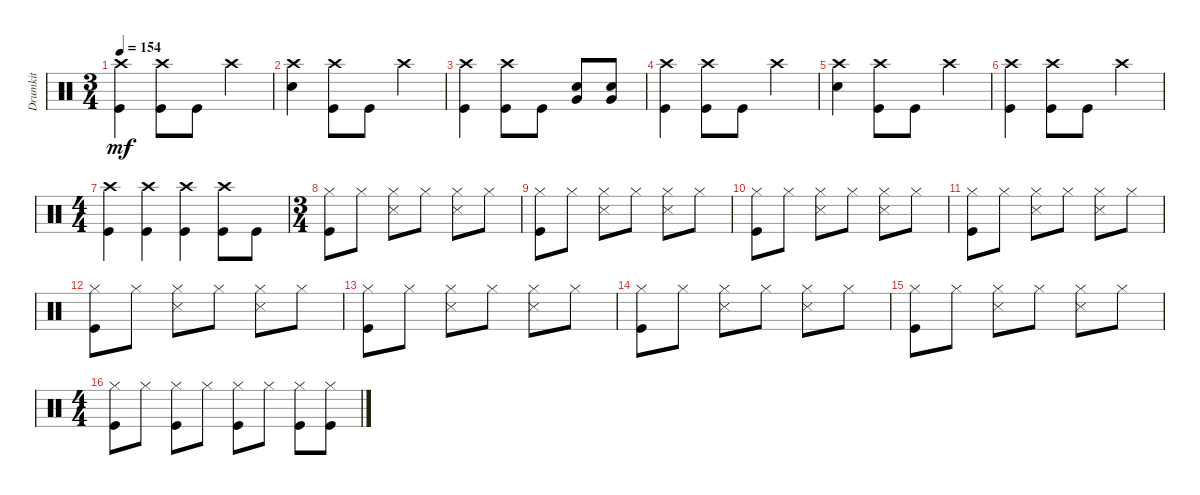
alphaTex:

\track ("Drumkit" "Drumkit") {instrument percussion}
\staff {score}
\articulation defaults
\ts (3 4)
\tempo 154
\clef neutral
\ks c
("Crash high (hit)" "Kick (hit)").4{dy mf} ("Crash high (hit)" "Kick (hit)").8 "Kick (hit)".8 "Crash high (hit)".4 |
("Crash high (hit)" "Snare (hit) 2").4 ("Crash high (hit)" "Kick (hit)").8 "Kick (hit)".8 "Crash high (hit)".4 |
("Crash high (hit)" "Kick (hit)").4 ("Crash high (hit)" "Kick (hit)").8 "Kick (hit)".8 ("Snare (hit) 2" "Very Low Tom (hit)").8 ("Snare (hit) 2" "Very Low Tom (hit)").8 |
("Crash high (hit)" "Kick (hit)").4 ("Crash high (hit)" "Kick (hit)").8 "Kick (hit)".8 "Crash high (hit)".4 |
("Crash high (hit)" "Snare (hit) 2").4 ("Crash high (hit)" "Kick (hit)").8 "Kick (hit)".8 "Crash high (hit)".4 |
("Crash high (hit)" "Kick (hit)").4 ("Crash high (hit)" "Kick (hit)").8 "Kick (hit)".8 "Crash high (hit)".4 |
\ts (4 4)
("Crash high (hit)" "Kick (hit)").4 ("Crash high (hit)" "Kick (hit)").4 ("Crash high (hit)" "Kick (hit)").4 ("Crash high (hit)" "Kick (hit)").8 "Kick (hit)".8 |
\ts (3 4)
("Kick (hit)" "Hi-Hat (closed)").8 "Hi-Hat (closed)".8 ("Hi-Hat (closed)" "Snare (side stick) 3").8 "Hi-Hat (closed)".8 ("Hi-Hat (closed)" "Snare (side stick) 3").8 "Hi-Hat (closed)".8 |
("Kick (hit)" "Hi-Hat (closed)").8 "Hi-Hat (closed)".8 ("Hi-Hat (closed)" "Snare (side stick) 3").8 "Hi-Hat (closed)".8 ("Hi-Hat (closed)" "Snare (side stick) 3").8 "Hi-Hat (closed)".8 |
("Kick (hit)" "Hi-Hat (closed)").8 "Hi-Hat (closed)".8 ("Hi-Hat (closed)" "Snare (side stick) 3").8 "Hi-Hat (closed)".8 ("Hi-Hat (closed)" "Snare (side stick) 3").8 "Hi-Hat (closed)".8 |
("Kick (hit)" "Hi-Hat (closed)").8 "Hi-Hat (closed)".8 ("Hi-Hat (closed)" "Snare (side stick) 3").8 "Hi-Hat (closed)".8 ("Hi-Hat (closed)" "Snare (side stick) 3").8 "Hi-Hat (closed)".8 |
("Kick (hit)" "Hi-Hat (closed)").8 "Hi-Hat (closed)".8 ("Hi-Hat (closed)" "Snare (side stick) 3").8 "Hi-Hat (closed)".8 ("Hi-Hat (closed)" "Snare (side stick) 3").8 "Hi-Hat (closed)".8 |
("Kick (hit)" "Hi-Hat (closed)").8 "Hi-Hat (closed)".8 ("Hi-Hat (closed)" "Snare (side stick) 3").8 "Hi-Hat (closed)".8 ("Hi-Hat (closed)" "Snare (side stick) 3").8 "Hi-Hat (closed)".8 |
("Kick (hit)" "Hi-Hat (closed)").8 "Hi-Hat (closed)".8 ("Hi-Hat (closed)" "Snare (side stick) 3").8 "Hi-Hat (closed)".8 ("Hi-Hat (closed)" "Snare (side stick) 3").8 "Hi-Hat (closed)".8 |
("Kick (hit)" "Hi-Hat (closed)").8 "Hi-Hat (closed)".8 ("Hi-Hat (closed)" "Snare (side stick) 3").8 "Hi-Hat (closed)".8 ("Hi-Hat (closed)" "Snare (side stick) 3").8 "Hi-Hat (closed)".8 |
\ts (4 4)
("Kick (hit)" "Hi-Hat (closed)").8 "Hi-Hat (closed)".8 ("Hi-Hat (closed)" "Kick (hit)").8 "Hi-Hat (closed)".8 ("Hi-Hat (closed)" "Kick (hit)").8 "Hi-Hat (closed)".8 ("Hi-Hat (closed)" "Kick (hit)").8 ("Hi-Hat (closed)" "Kick (hit)").8
